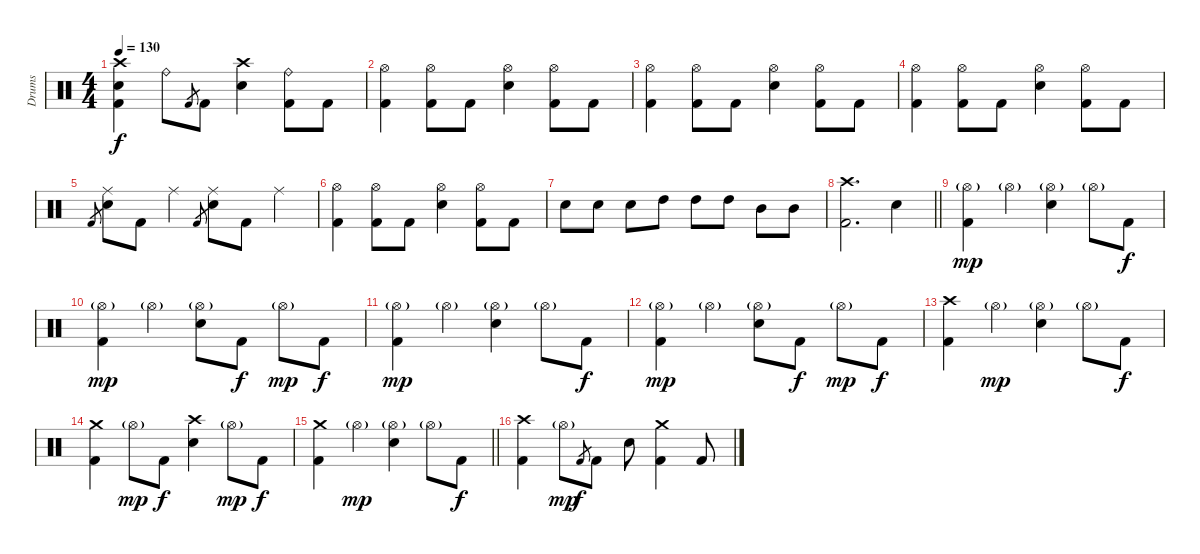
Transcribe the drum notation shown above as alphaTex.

\track ("Drums" "Drums") {instrument percussion}
\staff {score}
\articulation defaults
\ts (4 4)
\tempo 130
\clef neutral
\ks c
("Crash high (hit)" "Electric Snare (hit)" "Kick (hit) 2").4{dy f} "Ride (bell)".8 "Kick (hit) 2".8{gr} "Kick (hit) 2".8 ("Crash high (hit)" "Electric Snare (hit)").4 ("Ride (bell)" "Kick (hit) 2").8 "Kick (hit) 2".8 |
("Hi-Hat (open)" "Kick (hit) 2").4 ("Hi-Hat (open)" "Kick (hit) 2").8 "Kick (hit) 2".8 ("Hi-Hat (open)" "Electric Snare (hit)").4 ("Hi-Hat (open)" "Kick (hit) 2").8 "Kick (hit) 2".8 |
("Hi-Hat (open)" "Kick (hit) 2").4 ("Hi-Hat (open)" "Kick (hit) 2").8 "Kick (hit) 2".8 ("Hi-Hat (open)" "Electric Snare (hit)").4 ("Hi-Hat (open)" "Kick (hit) 2").8 "Kick (hit) 2".8 |
("Hi-Hat (open)" "Kick (hit) 2").4 ("Hi-Hat (open)" "Kick (hit) 2").8 "Kick (hit) 2".8 ("Hi-Hat (open)" "Electric Snare (hit)").4 ("Hi-Hat (open)" "Kick (hit) 2").8 "Kick (hit) 2".8 |
"Kick (hit) 2".8{gr} ("Ride (middle)" "Electric Snare (hit)").8 "Kick (hit) 2".8 "Ride (middle)".4 "Kick (hit) 2".8{gr} ("Ride (middle)" "Electric Snare (hit)").8 "Kick (hit) 2".8 "Ride (middle)".4 |
("Hi-Hat (open)" "Kick (hit) 2").4 ("Hi-Hat (open)" "Kick (hit) 2").8 "Kick (hit) 2".8 ("Hi-Hat (open)" "Electric Snare (hit)").4 ("Hi-Hat (open)" "Kick (hit) 2").8 "Kick (hit) 2".8 |
"Electric Snare (hit)".8 "Electric Snare (hit)".8 "Electric Snare (hit)".8 "High Tom (hit)".8 "High Tom (hit)".8 "High Tom (hit)".8 "Mid Tom (hit)".8 "Mid Tom (hit)".8 |
\barLineRight lightlight
("Crash high (hit)" "Kick (hit) 2").2{d} "Electric Snare (hit)".4 |
("Hi-Hat (open)"{g} "Kick (hit) 2").4{dy mp} "Hi-Hat (open)"{g}.4 ("Hi-Hat (open)"{g} "Electric Snare (hit)").4 "Hi-Hat (open)"{g}.8 "Kick (hit) 2".8{dy f} |
("Hi-Hat (open)"{g} "Kick (hit) 2").4{dy mp} "Hi-Hat (open)"{g}.4 ("Hi-Hat (open)"{g} "Electric Snare (hit)").8 "Kick (hit) 2".8{dy f} "Hi-Hat (open)"{g}.8{dy mp} "Kick (hit) 2".8{dy f} |
("Hi-Hat (open)"{g} "Kick (hit) 2").4{dy mp} "Hi-Hat (open)"{g}.4 ("Hi-Hat (open)"{g} "Electric Snare (hit)").4 "Hi-Hat (open)"{g}.8 "Kick (hit) 2".8{dy f} |
("Hi-Hat (open)"{g} "Kick (hit) 2").4{dy mp} "Hi-Hat (open)"{g}.4 ("Hi-Hat (open)"{g} "Electric Snare (hit)").8 "Kick (hit) 2".8{dy f} "Hi-Hat (open)"{g}.8{dy mp} "Kick (hit) 2".8{dy f} |
("Crash high (hit)" "Kick (hit) 2").4 "Hi-Hat (open)"{g}.4{dy mp} ("Hi-Hat (open)"{g} "Electric Snare (hit)").4 "Hi-Hat (open)"{g}.8 "Kick (hit) 2".8{dy f} |
("Crash medium (hit)" "Kick (hit) 2").4 "Hi-Hat (open)"{g}.8{dy mp} "Kick (hit) 2".8{dy f} ("Crash high (hit)" "Electric Snare (hit)").4 "Hi-Hat (open)"{g}.8{dy mp} "Kick (hit) 2".8{dy f} |
\barLineRight lightlight
("Crash medium (hit)" "Kick (hit) 2").4 "Hi-Hat (open)"{g}.4{dy mp} ("Hi-Hat (open)"{g} "Electric Snare (hit)").4 "Hi-Hat (open)"{g}.8 "Kick (hit) 2".8{dy f} |
("Crash high (hit)" "Kick (hit) 2").4 "Hi-Hat (open)"{g}.8{dy mp} "Kick (hit) 2".8{gr dy f} "Kick (hit) 2".8 "Electric Snare (hit)".8 ("Crash medium (hit)" "Kick (hit) 2").4 "Kick (hit) 2".8
